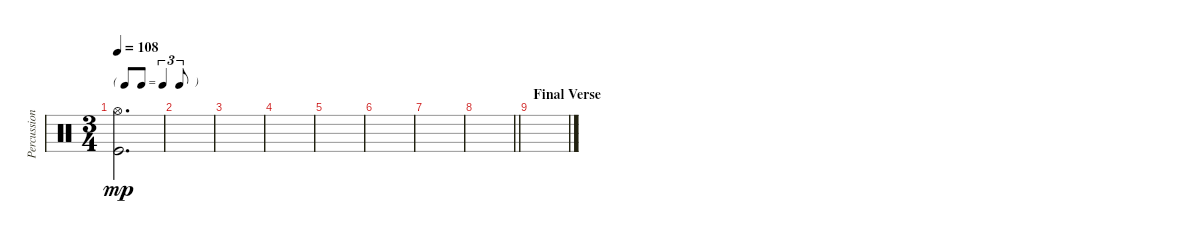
\track ("Percussion" "Percussion") {instrument percussion}
\staff {score}
\articulation defaults
\ts (3 4)
\tf triplet8th
\tempo 108
\clef neutral
\ks c
("Hi-Hat (open)" "Kick (hit)").2{d dy mp} |
|
|
|
|
|
|
\barLineRight lightlight
|
\section ("" "Final Verse")
